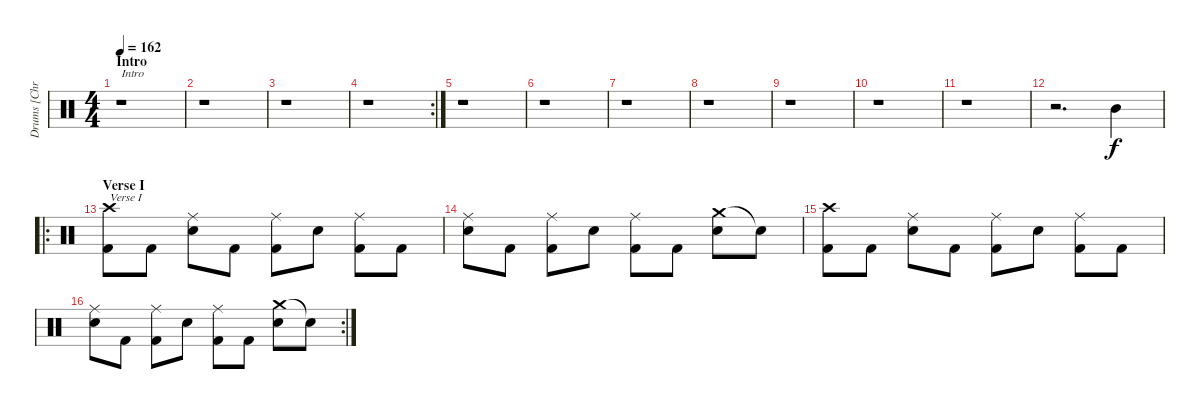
\track ("Drums [Chris Maitland]" "Drums [Chr") {instrument percussion}
\staff {score}
\articulation defaults
\ts (4 4)
\section ("" "Intro")
\tempo 162
\clef neutral
\ks c
r.1{txt "Intro" dy f} |
r.1 |
r.1 |
\rc 2
r.1 |
r.1 |
r.1 |
r.1 |
r.1 |
r.1 |
r.1 |
r.1 |
r.2{d} "Mid Tom (hit)".4 |
\ro
\section ("" "Verse I")
("Crash high (hit)" "Kick (hit) 2").8{txt "Verse I"} "Kick (hit) 2".8 ("Ride (middle)" "Electric Snare (hit)").8 "Kick (hit) 2".8 ("Ride (middle)" "Kick (hit) 2").8 "Electric Snare (hit)".8 ("Ride (middle)" "Kick (hit) 2").8 "Kick (hit) 2".8 |
("Ride (middle)" "Electric Snare (hit)").8 "Kick (hit) 2".8 ("Ride (middle)" "Kick (hit) 2").8 "Electric Snare (hit)".8 ("Ride (middle)" "Kick (hit) 2").8 "Kick (hit) 2".8 ("Crash medium (hit)" "Electric Snare (hit)").8 "Snare (hit)"{t}.8 |
("Crash high (hit)" "Kick (hit) 2").8 "Kick (hit) 2".8 ("Ride (middle)" "Electric Snare (hit)").8 "Kick (hit) 2".8 ("Ride (middle)" "Kick (hit) 2").8 "Electric Snare (hit)".8 ("Ride (middle)" "Kick (hit) 2").8 "Kick (hit) 2".8 |
\rc 2
("Ride (middle)" "Electric Snare (hit)").8 "Kick (hit) 2".8 ("Ride (middle)" "Kick (hit) 2").8 "Electric Snare (hit)".8 ("Ride (middle)" "Kick (hit) 2").8 "Kick (hit) 2".8 ("Crash medium (hit)" "Electric Snare (hit)").8 "Snare (hit)"{t}.8
